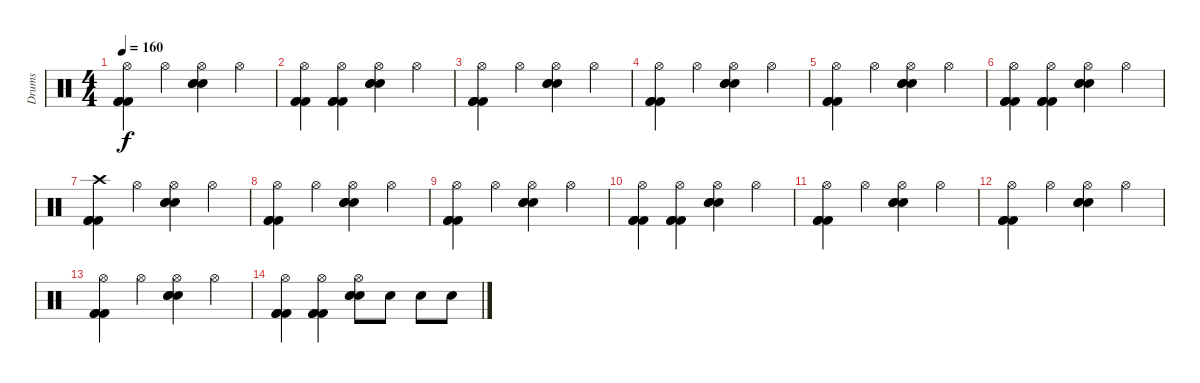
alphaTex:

\track ("Drums" "Drums") {instrument percussion}
\staff {score}
\articulation defaults
\ts (4 4)
\tempo 160
\clef neutral
\ks c
("Hi-Hat (open)" "Kick (hit) 2" "Kick (hit) 2" "Kick (hit) 2").4{dy f} "Hi-Hat (open)".4 ("Hi-Hat (open)" "Electric Snare (hit)" "Electric Snare (hit)" "Electric Snare (hit)").4 "Hi-Hat (open)".4 |
("Hi-Hat (open)" "Kick (hit) 2" "Kick (hit) 2" "Kick (hit) 2").4 ("Hi-Hat (open)" "Kick (hit) 2" "Kick (hit) 2" "Kick (hit) 2").4 ("Hi-Hat (open)" "Electric Snare (hit)" "Electric Snare (hit)" "Electric Snare (hit)").4 "Hi-Hat (open)".4 |
("Hi-Hat (open)" "Kick (hit) 2" "Kick (hit) 2" "Kick (hit) 2").4 "Hi-Hat (open)".4 ("Hi-Hat (open)" "Electric Snare (hit)" "Electric Snare (hit)" "Electric Snare (hit)").4 "Hi-Hat (open)".4 |
("Hi-Hat (open)" "Kick (hit) 2" "Kick (hit) 2" "Kick (hit) 2").4 "Hi-Hat (open)".4 ("Hi-Hat (open)" "Electric Snare (hit)" "Electric Snare (hit)" "Electric Snare (hit)").4 "Hi-Hat (open)".4 |
("Hi-Hat (open)" "Kick (hit) 2" "Kick (hit) 2" "Kick (hit) 2").4 "Hi-Hat (open)".4 ("Hi-Hat (open)" "Electric Snare (hit)" "Electric Snare (hit)" "Electric Snare (hit)").4 "Hi-Hat (open)".4 |
("Hi-Hat (open)" "Kick (hit) 2" "Kick (hit) 2" "Kick (hit) 2").4 ("Hi-Hat (open)" "Kick (hit) 2" "Kick (hit) 2" "Kick (hit) 2").4 ("Hi-Hat (open)" "Electric Snare (hit)" "Electric Snare (hit)" "Electric Snare (hit)").4 "Hi-Hat (open)".4 |
("Crash high (hit)" "Kick (hit) 2" "Kick (hit) 2" "Kick (hit) 2").4 "Hi-Hat (open)".4 ("Hi-Hat (open)" "Electric Snare (hit)" "Electric Snare (hit)" "Electric Snare (hit)").4 "Hi-Hat (open)".4 |
("Hi-Hat (open)" "Kick (hit) 2" "Kick (hit) 2" "Kick (hit) 2").4 "Hi-Hat (open)".4 ("Hi-Hat (open)" "Electric Snare (hit)" "Electric Snare (hit)" "Electric Snare (hit)").4 "Hi-Hat (open)".4 |
("Hi-Hat (open)" "Kick (hit) 2" "Kick (hit) 2" "Kick (hit) 2").4 "Hi-Hat (open)".4 ("Hi-Hat (open)" "Electric Snare (hit)" "Electric Snare (hit)" "Electric Snare (hit)").4 "Hi-Hat (open)".4 |
("Hi-Hat (open)" "Kick (hit) 2" "Kick (hit) 2" "Kick (hit) 2").4 ("Hi-Hat (open)" "Kick (hit) 2" "Kick (hit) 2" "Kick (hit) 2").4 ("Hi-Hat (open)" "Electric Snare (hit)" "Electric Snare (hit)" "Electric Snare (hit)").4 "Hi-Hat (open)".4 |
("Hi-Hat (open)" "Kick (hit) 2" "Kick (hit) 2" "Kick (hit) 2").4 "Hi-Hat (open)".4 ("Hi-Hat (open)" "Electric Snare (hit)" "Electric Snare (hit)" "Electric Snare (hit)").4 "Hi-Hat (open)".4 |
("Hi-Hat (open)" "Kick (hit) 2" "Kick (hit) 2" "Kick (hit) 2").4 "Hi-Hat (open)".4 ("Hi-Hat (open)" "Electric Snare (hit)" "Electric Snare (hit)" "Electric Snare (hit)").4 "Hi-Hat (open)".4 |
("Hi-Hat (open)" "Kick (hit) 2" "Kick (hit) 2" "Kick (hit) 2").4 "Hi-Hat (open)".4 ("Hi-Hat (open)" "Electric Snare (hit)" "Electric Snare (hit)" "Electric Snare (hit)").4 "Hi-Hat (open)".4 |
("Hi-Hat (open)" "Kick (hit) 2" "Kick (hit) 2" "Kick (hit) 2").4 ("Hi-Hat (open)" "Kick (hit) 2" "Kick (hit) 2" "Kick (hit) 2").4 ("Hi-Hat (open)" "Electric Snare (hit)" "Electric Snare (hit)" "Electric Snare (hit)").8 "Electric Snare (hit)".8 "Electric Snare (hit)".8 "Electric Snare (hit)".8
